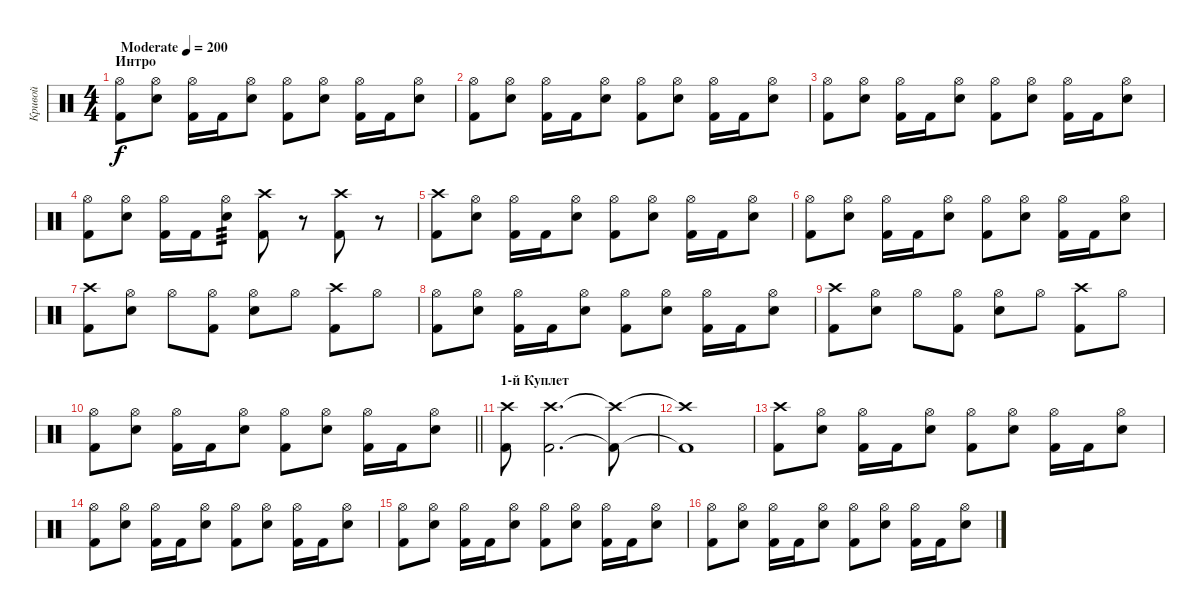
\track ("Кривой" "Кривой") {instrument percussion}
\staff {score}
\articulation defaults
\ts (4 4)
\section ("" "Интро")
\tempo (200 "Moderate")
\clef neutral
\ks c
("Kick (hit) 2" "Hi-Hat (open)").8{dy f} ("Electric Snare (hit)" "Hi-Hat (open)").8 ("Kick (hit) 2" "Hi-Hat (open)").16 "Kick (hit) 2".16 ("Electric Snare (hit)" "Hi-Hat (open)").8 ("Kick (hit) 2" "Hi-Hat (open)").8 ("Electric Snare (hit)" "Hi-Hat (open)").8 ("Kick (hit) 2" "Hi-Hat (open)").16 "Kick (hit) 2".16 ("Electric Snare (hit)" "Hi-Hat (open)").8 |
("Kick (hit) 2" "Hi-Hat (open)").8 ("Electric Snare (hit)" "Hi-Hat (open)").8 ("Kick (hit) 2" "Hi-Hat (open)").16 "Kick (hit) 2".16 ("Electric Snare (hit)" "Hi-Hat (open)").8 ("Kick (hit) 2" "Hi-Hat (open)").8 ("Electric Snare (hit)" "Hi-Hat (open)").8 ("Kick (hit) 2" "Hi-Hat (open)").16 "Kick (hit) 2".16 ("Electric Snare (hit)" "Hi-Hat (open)").8 |
("Kick (hit) 2" "Hi-Hat (open)").8 ("Electric Snare (hit)" "Hi-Hat (open)").8 ("Kick (hit) 2" "Hi-Hat (open)").16 "Kick (hit) 2".16 ("Electric Snare (hit)" "Hi-Hat (open)").8 ("Kick (hit) 2" "Hi-Hat (open)").8 ("Electric Snare (hit)" "Hi-Hat (open)").8 ("Kick (hit) 2" "Hi-Hat (open)").16 "Kick (hit) 2".16 ("Electric Snare (hit)" "Hi-Hat (open)").8 |
("Kick (hit) 2" "Hi-Hat (open)").8 ("Electric Snare (hit)" "Hi-Hat (open)").8 ("Kick (hit) 2" "Hi-Hat (open)").16 "Kick (hit) 2".16 ("Electric Snare (hit)" "Hi-Hat (open)").8{tp 3} ("Kick (hit) 2" "Crash high (hit)").8 r.8 ("Kick (hit) 2" "Crash high (hit)").8 r.8 |
("Kick (hit) 2" "Crash high (hit)").8 ("Electric Snare (hit)" "Hi-Hat (open)").8 ("Kick (hit) 2" "Hi-Hat (open)").16 "Kick (hit) 2".16 ("Electric Snare (hit)" "Hi-Hat (open)").8 ("Kick (hit) 2" "Hi-Hat (open)").8 ("Electric Snare (hit)" "Hi-Hat (open)").8 ("Kick (hit) 2" "Hi-Hat (open)").16 "Kick (hit) 2".16 ("Electric Snare (hit)" "Hi-Hat (open)").8 |
("Kick (hit) 2" "Hi-Hat (open)").8 ("Electric Snare (hit)" "Hi-Hat (open)").8 ("Kick (hit) 2" "Hi-Hat (open)").16 "Kick (hit) 2".16 ("Electric Snare (hit)" "Hi-Hat (open)").8 ("Kick (hit) 2" "Hi-Hat (open)").8 ("Electric Snare (hit)" "Hi-Hat (open)").8 ("Kick (hit) 2" "Hi-Hat (open)").16 "Kick (hit) 2".16 ("Electric Snare (hit)" "Hi-Hat (open)").8 |
("Kick (hit) 2" "Crash high (hit)").8 ("Electric Snare (hit)" "Hi-Hat (open)").8 "Hi-Hat (open)".8 ("Kick (hit) 2" "Hi-Hat (open)").8 ("Electric Snare (hit)" "Hi-Hat (open)").8 "Hi-Hat (open)".8 ("Kick (hit) 2" "Crash high (hit)").8 "Hi-Hat (open)".8 |
("Kick (hit) 2" "Hi-Hat (open)").8 ("Electric Snare (hit)" "Hi-Hat (open)").8 ("Kick (hit) 2" "Hi-Hat (open)").16 "Kick (hit) 2".16 ("Electric Snare (hit)" "Hi-Hat (open)").8 ("Kick (hit) 2" "Hi-Hat (open)").8 ("Electric Snare (hit)" "Hi-Hat (open)").8 ("Kick (hit) 2" "Hi-Hat (open)").16 "Kick (hit) 2".16 ("Electric Snare (hit)" "Hi-Hat (open)").8 |
("Kick (hit) 2" "Crash high (hit)").8 ("Electric Snare (hit)" "Hi-Hat (open)").8 "Hi-Hat (open)".8 ("Kick (hit) 2" "Hi-Hat (open)").8 ("Electric Snare (hit)" "Hi-Hat (open)").8 "Hi-Hat (open)".8 ("Kick (hit) 2" "Crash high (hit)").8 "Hi-Hat (open)".8 |
\barLineRight lightlight
("Kick (hit) 2" "Hi-Hat (open)").8 ("Electric Snare (hit)" "Hi-Hat (open)").8 ("Kick (hit) 2" "Hi-Hat (open)").16 "Kick (hit) 2".16 ("Electric Snare (hit)" "Hi-Hat (open)").8 ("Kick (hit) 2" "Hi-Hat (open)").8 ("Electric Snare (hit)" "Hi-Hat (open)").8 ("Kick (hit) 2" "Hi-Hat (open)").16 "Kick (hit) 2".16 ("Electric Snare (hit)" "Hi-Hat (open)").8 |
\section ("" "1-й Куплет")
("Kick (hit) 2" "Crash high (hit)").8 ("Kick (hit) 2" "Crash high (hit)").2{d} ("Kick (hit) 2"{t} "Crash high (hit)"{t}).8 |
("Kick (hit) 2"{t} "Crash high (hit)"{t}).1 |
("Kick (hit) 2" "Crash high (hit)").8 ("Electric Snare (hit)" "Hi-Hat (open)").8 ("Kick (hit) 2" "Hi-Hat (open)").16 "Kick (hit) 2".16 ("Electric Snare (hit)" "Hi-Hat (open)").8 ("Kick (hit) 2" "Hi-Hat (open)").8 ("Electric Snare (hit)" "Hi-Hat (open)").8 ("Kick (hit) 2" "Hi-Hat (open)").16 "Kick (hit) 2".16 ("Electric Snare (hit)" "Hi-Hat (open)").8 |
("Kick (hit) 2" "Hi-Hat (open)").8 ("Electric Snare (hit)" "Hi-Hat (open)").8 ("Kick (hit) 2" "Hi-Hat (open)").16 "Kick (hit) 2".16 ("Electric Snare (hit)" "Hi-Hat (open)").8 ("Kick (hit) 2" "Hi-Hat (open)").8 ("Electric Snare (hit)" "Hi-Hat (open)").8 ("Kick (hit) 2" "Hi-Hat (open)").16 "Kick (hit) 2".16 ("Electric Snare (hit)" "Hi-Hat (open)").8 |
("Kick (hit) 2" "Hi-Hat (open)").8 ("Electric Snare (hit)" "Hi-Hat (open)").8 ("Kick (hit) 2" "Hi-Hat (open)").16 "Kick (hit) 2".16 ("Electric Snare (hit)" "Hi-Hat (open)").8 ("Kick (hit) 2" "Hi-Hat (open)").8 ("Electric Snare (hit)" "Hi-Hat (open)").8 ("Kick (hit) 2" "Hi-Hat (open)").16 "Kick (hit) 2".16 ("Electric Snare (hit)" "Hi-Hat (open)").8 |
("Kick (hit) 2" "Hi-Hat (open)").8 ("Electric Snare (hit)" "Hi-Hat (open)").8 ("Kick (hit) 2" "Hi-Hat (open)").16 "Kick (hit) 2".16 ("Electric Snare (hit)" "Hi-Hat (open)").8 ("Kick (hit) 2" "Hi-Hat (open)").8 ("Electric Snare (hit)" "Hi-Hat (open)").8 ("Kick (hit) 2" "Hi-Hat (open)").16 "Kick (hit) 2".16 ("Electric Snare (hit)" "Hi-Hat (open)").8
